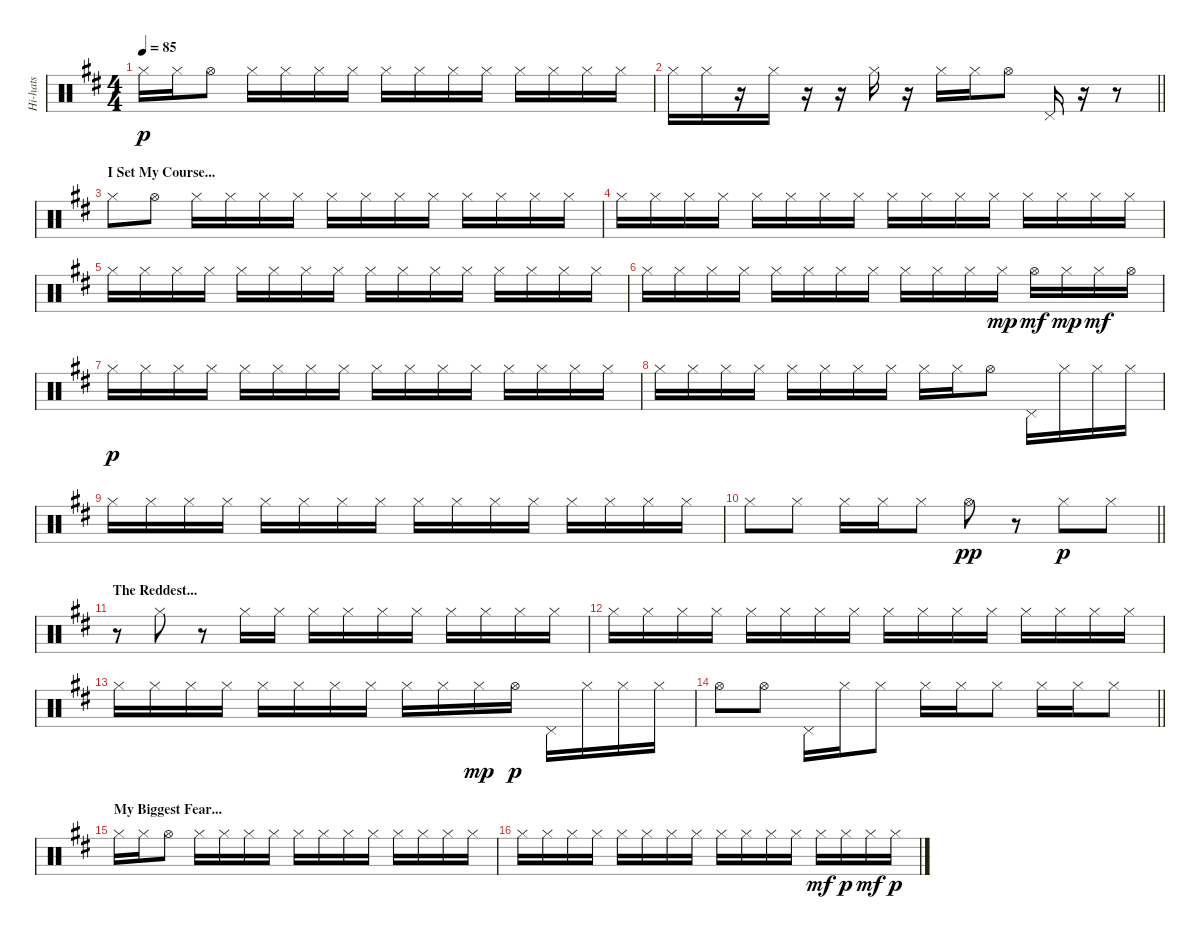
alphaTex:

\track ("Hi-hats" "Hi-hats") {instrument percussion}
\staff {score}
\articulation defaults
\ts (4 4)
\tempo 85
\clef neutral
\ks bminor "Hi-Hat (closed)".16{dy p} "Hi-Hat (closed)".16 "Hi-Hat (open)".8 "Hi-Hat (closed)".16 "Hi-Hat (closed)".16 "Hi-Hat (closed)".16 "Hi-Hat (closed)".16 "Hi-Hat (closed)".16 "Hi-Hat (closed)".16 "Hi-Hat (closed)".16 "Hi-Hat (closed)".16 "Hi-Hat (closed)".16 "Hi-Hat (closed)".16 "Hi-Hat (closed)".16 "Hi-Hat (closed)".16
|
\barLineRight lightlight "Hi-Hat (closed)".16 "Hi-Hat (closed)".16
r.16 "Hi-Hat (closed)".16 r.16 r.16 "Hi-Hat (closed)".16 r.16 "Hi-Hat (closed)".16 "Hi-Hat (closed)".16 "Hi-Hat (open)".8 "Pedal Hi-Hat (hit)".16 r.16 r.8 |
\section ("" "I Set My Course...")
"Hi-Hat (closed)".8 "Hi-Hat (open)".8 "Hi-Hat (closed)".16 "Hi-Hat (closed)".16 "Hi-Hat (closed)".16 "Hi-Hat (closed)".16 "Hi-Hat (closed)".16 "Hi-Hat (closed)".16 "Hi-Hat (closed)".16 "Hi-Hat (closed)".16 "Hi-Hat (closed)".16 "Hi-Hat (closed)".16 "Hi-Hat (closed)".16 "Hi-Hat (closed)".16 |
"Hi-Hat (closed)".16 "Hi-Hat (closed)".16 "Hi-Hat (closed)".16 "Hi-Hat (closed)".16 "Hi-Hat (closed)".16 "Hi-Hat (closed)".16 "Hi-Hat (closed)".16 "Hi-Hat (closed)".16 "Hi-Hat (closed)".16 "Hi-Hat (closed)".16 "Hi-Hat (closed)".16 "Hi-Hat (closed)".16 "Hi-Hat (closed)".16 "Hi-Hat (closed)".16 "Hi-Hat (closed)".16 "Hi-Hat (closed)".16 |
"Hi-Hat (closed)".16 "Hi-Hat (closed)".16 "Hi-Hat (closed)".16 "Hi-Hat (closed)".16 "Hi-Hat (closed)".16 "Hi-Hat (closed)".16 "Hi-Hat (closed)".16 "Hi-Hat (closed)".16 "Hi-Hat (closed)".16 "Hi-Hat (closed)".16 "Hi-Hat (closed)".16 "Hi-Hat (closed)".16 "Hi-Hat (closed)".16 "Hi-Hat (closed)".16 "Hi-Hat (closed)".16 "Hi-Hat (closed)".16 |
"Hi-Hat (closed)".16 "Hi-Hat (closed)".16 "Hi-Hat (closed)".16 "Hi-Hat (closed)".16 "Hi-Hat (closed)".16 "Hi-Hat (closed)".16 "Hi-Hat (closed)".16 "Hi-Hat (closed)".16 "Hi-Hat (closed)".16 "Hi-Hat (closed)".16 "Hi-Hat (closed)".16 "Hi-Hat (closed)".16{dy mp} "Hi-Hat (open)".16{dy mf} "Hi-Hat (closed)".16{dy mp} "Hi-Hat (closed)".16{dy mf} "Hi-Hat (open)".16 |
"Hi-Hat (closed)".16{dy p} "Hi-Hat (closed)".16 "Hi-Hat (closed)".16 "Hi-Hat (closed)".16 "Hi-Hat (closed)".16 "Hi-Hat (closed)".16 "Hi-Hat (closed)".16 "Hi-Hat (closed)".16 "Hi-Hat (closed)".16 "Hi-Hat (closed)".16 "Hi-Hat (closed)".16 "Hi-Hat (closed)".16 "Hi-Hat (closed)".16 "Hi-Hat (closed)".16 "Hi-Hat (closed)".16 "Hi-Hat (closed)".16 |
"Hi-Hat (closed)".16 "Hi-Hat (closed)".16 "Hi-Hat (closed)".16 "Hi-Hat (closed)".16 "Hi-Hat (closed)".16 "Hi-Hat (closed)".16 "Hi-Hat (closed)".16 "Hi-Hat (closed)".16 "Hi-Hat (closed)".16 "Hi-Hat (closed)".16 "Hi-Hat (open)".8 "Pedal Hi-Hat (hit)".16 "Hi-Hat (closed)".16 "Hi-Hat (closed)".16 "Hi-Hat (closed)".16 |
"Hi-Hat (closed)".16 "Hi-Hat (closed)".16 "Hi-Hat (closed)".16 "Hi-Hat (closed)".16 "Hi-Hat (closed)".16 "Hi-Hat (closed)".16 "Hi-Hat (closed)".16 "Hi-Hat (closed)".16 "Hi-Hat (closed)".16 "Hi-Hat (closed)".16 "Hi-Hat (closed)".16 "Hi-Hat (closed)".16 "Hi-Hat (closed)".16 "Hi-Hat (closed)".16 "Hi-Hat (closed)".16 "Hi-Hat (closed)".16 |
\barLineRight lightlight "Hi-Hat (closed)".8 "Hi-Hat (closed)".8 "Hi-Hat (closed)".16 "Hi-Hat (closed)".16 "Hi-Hat (closed)".8 "Hi-Hat (open)".8{dy pp}
r.8 "Hi-Hat (closed)".8{dy p} "Hi-Hat (closed)".8 |
\section ("" "The Reddest...")
r.8 "Hi-Hat (closed)".8 r.8 "Hi-Hat (closed)".16 "Hi-Hat (closed)".16 "Hi-Hat (closed)".16 "Hi-Hat (closed)".16 "Hi-Hat (closed)".16 "Hi-Hat (closed)".16 "Hi-Hat (closed)".16 "Hi-Hat (closed)".16 "Hi-Hat (closed)".16 "Hi-Hat (closed)".16 |
"Hi-Hat (closed)".16 "Hi-Hat (closed)".16 "Hi-Hat (closed)".16 "Hi-Hat (closed)".16 "Hi-Hat (closed)".16 "Hi-Hat (closed)".16 "Hi-Hat (closed)".16 "Hi-Hat (closed)".16 "Hi-Hat (closed)".16 "Hi-Hat (closed)".16 "Hi-Hat (closed)".16 "Hi-Hat (closed)".16 "Hi-Hat (closed)".16 "Hi-Hat (closed)".16 "Hi-Hat (closed)".16 "Hi-Hat (closed)".16 |
"Hi-Hat (closed)".16 "Hi-Hat (closed)".16 "Hi-Hat (closed)".16 "Hi-Hat (closed)".16 "Hi-Hat (closed)".16 "Hi-Hat (closed)".16 "Hi-Hat (closed)".16 "Hi-Hat (closed)".16 "Hi-Hat (closed)".16 "Hi-Hat (closed)".16 "Hi-Hat (closed)".16{dy mp} "Hi-Hat (open)".16{dy p} "Pedal Hi-Hat (hit)".16 "Hi-Hat (closed)".16 "Hi-Hat (closed)".16 "Hi-Hat (closed)".16 |
\barLineRight lightlight "Hi-Hat (open)".8 "Hi-Hat (open)".8 "Pedal Hi-Hat (hit)".16 "Hi-Hat (closed)".16 "Hi-Hat (closed)".8 "Hi-Hat (closed)".16 "Hi-Hat (closed)".16 "Hi-Hat (closed)".8 "Hi-Hat (closed)".16 "Hi-Hat (closed)".16 "Hi-Hat (closed)".8
|
\section ("" "My Biggest Fear...")
"Hi-Hat (closed)".16 "Hi-Hat (closed)".16 "Hi-Hat (open)".8 "Hi-Hat (closed)".16 "Hi-Hat (closed)".16 "Hi-Hat (closed)".16 "Hi-Hat (closed)".16 "Hi-Hat (closed)".16 "Hi-Hat (closed)".16 "Hi-Hat (closed)".16 "Hi-Hat (closed)".16 "Hi-Hat (closed)".16 "Hi-Hat (closed)".16 "Hi-Hat (closed)".16 "Hi-Hat (closed)".16 |
"Hi-Hat (closed)".16 "Hi-Hat (closed)".16 "Hi-Hat (closed)".16 "Hi-Hat (closed)".16 "Hi-Hat (closed)".16 "Hi-Hat (closed)".16 "Hi-Hat (closed)".16 "Hi-Hat (closed)".16 "Hi-Hat (closed)".16 "Hi-Hat (closed)".16 "Hi-Hat (closed)".16 "Hi-Hat (closed)".16 "Hi-Hat (closed)".16{dy mf} "Hi-Hat (closed)".16{dy p} "Hi-Hat (closed)".16{dy mf} "Hi-Hat (closed)".16{dy p}
